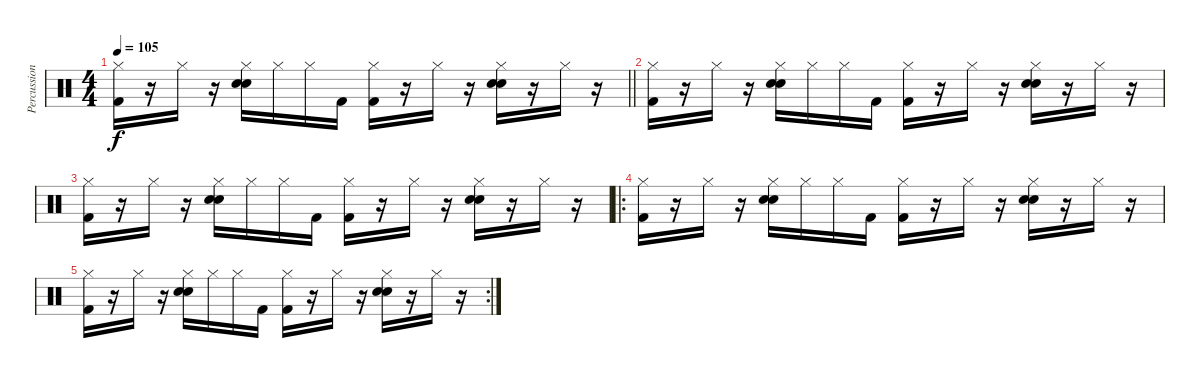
\track ("Percussion" "Percussion") {instrument percussion}
\staff {score}
\articulation defaults
\ts (4 4)
\tempo 105
\clef neutral
\barLineRight lightlight
\ks c
("Hi-Hat (closed)" "Kick (hit) 2").16{dy f} r.16 "Hi-Hat (closed)".16 r.16 ("Hi-Hat (closed)" "Snare (hit) 2" "Hand Clap (hit)").16 "Hi-Hat (closed)".16 "Hi-Hat (closed)".16 "Kick (hit) 2".16 ("Hi-Hat (closed)" "Kick (hit) 2").16 r.16 "Hi-Hat (closed)".16 r.16 ("Hi-Hat (closed)" "Snare (hit) 2" "Hand Clap (hit)").16 r.16 "Hi-Hat (closed)".16 r.16 |
("Hi-Hat (closed)" "Kick (hit) 2").16 r.16 "Hi-Hat (closed)".16 r.16 ("Hi-Hat (closed)" "Snare (hit) 2" "Hand Clap (hit)").16 "Hi-Hat (closed)".16 "Hi-Hat (closed)".16 "Kick (hit) 2".16 ("Hi-Hat (closed)" "Kick (hit) 2").16 r.16 "Hi-Hat (closed)".16 r.16 ("Hi-Hat (closed)" "Snare (hit) 2" "Hand Clap (hit)").16 r.16 "Hi-Hat (closed)".16 r.16 |
("Hi-Hat (closed)" "Kick (hit) 2").16 r.16 "Hi-Hat (closed)".16 r.16 ("Hi-Hat (closed)" "Snare (hit) 2" "Hand Clap (hit)").16 "Hi-Hat (closed)".16 "Hi-Hat (closed)".16 "Kick (hit) 2".16 ("Hi-Hat (closed)" "Kick (hit) 2").16 r.16 "Hi-Hat (closed)".16 r.16 ("Hi-Hat (closed)" "Snare (hit) 2" "Hand Clap (hit)").16 r.16 "Hi-Hat (closed)".16 r.16 |
\ro
("Hi-Hat (closed)" "Kick (hit) 2").16 r.16 "Hi-Hat (closed)".16 r.16 ("Hi-Hat (closed)" "Snare (hit) 2" "Hand Clap (hit)").16 "Hi-Hat (closed)".16 "Hi-Hat (closed)".16 "Kick (hit) 2".16 ("Hi-Hat (closed)" "Kick (hit) 2").16 r.16 "Hi-Hat (closed)".16 r.16 ("Hi-Hat (closed)" "Snare (hit) 2" "Hand Clap (hit)").16 r.16 "Hi-Hat (closed)".16 r.16 |
\rc 2
("Hi-Hat (closed)" "Kick (hit) 2").16 r.16 "Hi-Hat (closed)".16 r.16 ("Hi-Hat (closed)" "Snare (hit) 2" "Hand Clap (hit)").16 "Hi-Hat (closed)".16 "Hi-Hat (closed)".16 "Kick (hit) 2".16 ("Hi-Hat (closed)" "Kick (hit) 2").16 r.16 "Hi-Hat (closed)".16 r.16 ("Hi-Hat (closed)" "Snare (hit) 2" "Hand Clap (hit)").16 r.16 "Hi-Hat (closed)".16 r.16
